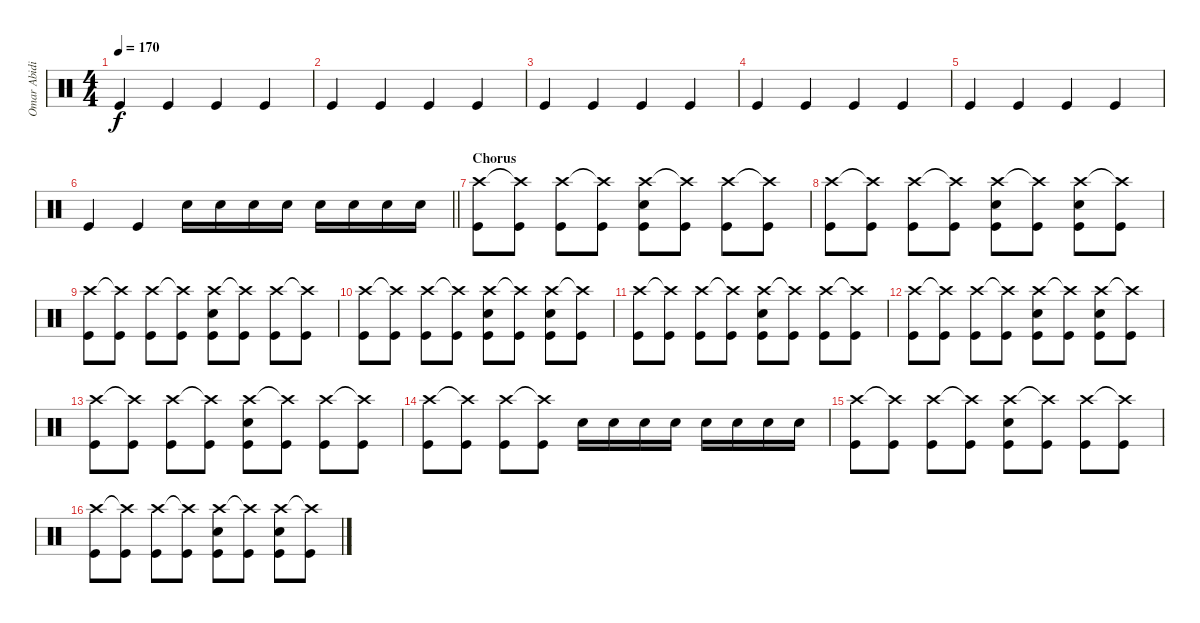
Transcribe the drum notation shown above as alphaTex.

\track ("Omar Abidi" "Omar Abidi") {instrument percussion}
\staff {score}
\articulation defaults
\ts (4 4)
\tempo 170
\clef neutral
\ks c "Kick (hit)".4{dy f} "Kick (hit)".4 "Kick (hit)".4 "Kick (hit)".4
|
"Kick (hit)".4 "Kick (hit)".4 "Kick (hit)".4 "Kick (hit)".4 |
"Kick (hit)".4 "Kick (hit)".4 "Kick (hit)".4 "Kick (hit)".4 |
"Kick (hit)".4 "Kick (hit)".4 "Kick (hit)".4 "Kick (hit)".4 |
"Kick (hit)".4 "Kick (hit)".4 "Kick (hit)".4 "Kick (hit)".4 |
\barLineRight lightlight "Kick (hit)".4 "Kick (hit)".4 "Snare (hit) 2".16 "Snare (hit) 2".16 "Snare (hit) 2".16 "Snare (hit) 2".16 "Snare (hit) 2".16 "Snare (hit) 2".16 "Snare (hit) 2".16 "Snare (hit) 2".16
|
\section ("" "Chorus")
("Crash high (hit)" "Kick (hit)").8 ("Crash high (hit)"{t} "Kick (hit)").8 ("Crash high (hit)" "Kick (hit)").8 ("Crash high (hit)"{t} "Kick (hit)").8 ("Crash high (hit)" "Snare (hit) 2" "Kick (hit)").8 ("Crash high (hit)"{t} "Kick (hit)").8 ("Crash high (hit)" "Kick (hit)").8 ("Crash high (hit)"{t} "Kick (hit)").8 |
("Crash high (hit)" "Kick (hit)").8 ("Crash high (hit)"{t} "Kick (hit)").8 ("Crash high (hit)" "Kick (hit)").8 ("Crash high (hit)"{t} "Kick (hit)").8 ("Crash high (hit)" "Snare (hit) 2" "Kick (hit)").8 ("Crash high (hit)"{t} "Kick (hit)").8 ("Crash high (hit)" "Snare (hit) 2" "Kick (hit)").8 ("Crash high (hit)"{t} "Kick (hit)").8 |
("Crash high (hit)" "Kick (hit)").8 ("Crash high (hit)"{t} "Kick (hit)").8 ("Crash high (hit)" "Kick (hit)").8 ("Crash high (hit)"{t} "Kick (hit)").8 ("Crash high (hit)" "Snare (hit) 2" "Kick (hit)").8 ("Crash high (hit)"{t} "Kick (hit)").8 ("Crash high (hit)" "Kick (hit)").8 ("Crash high (hit)"{t} "Kick (hit)").8 |
("Crash high (hit)" "Kick (hit)").8 ("Crash high (hit)"{t} "Kick (hit)").8 ("Crash high (hit)" "Kick (hit)").8 ("Crash high (hit)"{t} "Kick (hit)").8 ("Crash high (hit)" "Snare (hit) 2" "Kick (hit)").8 ("Crash high (hit)"{t} "Kick (hit)").8 ("Crash high (hit)" "Snare (hit) 2" "Kick (hit)").8 ("Crash high (hit)"{t} "Kick (hit)").8 |
("Crash high (hit)" "Kick (hit)").8 ("Crash high (hit)"{t} "Kick (hit)").8 ("Crash high (hit)" "Kick (hit)").8 ("Crash high (hit)"{t} "Kick (hit)").8 ("Crash high (hit)" "Snare (hit) 2" "Kick (hit)").8 ("Crash high (hit)"{t} "Kick (hit)").8 ("Crash high (hit)" "Kick (hit)").8 ("Crash high (hit)"{t} "Kick (hit)").8 |
("Crash high (hit)" "Kick (hit)").8 ("Crash high (hit)"{t} "Kick (hit)").8 ("Crash high (hit)" "Kick (hit)").8 ("Crash high (hit)"{t} "Kick (hit)").8 ("Crash high (hit)" "Snare (hit) 2" "Kick (hit)").8 ("Crash high (hit)"{t} "Kick (hit)").8 ("Crash high (hit)" "Snare (hit) 2" "Kick (hit)").8 ("Crash high (hit)"{t} "Kick (hit)").8 |
("Crash high (hit)" "Kick (hit)").8 ("Crash high (hit)"{t} "Kick (hit)").8 ("Crash high (hit)" "Kick (hit)").8 ("Crash high (hit)"{t} "Kick (hit)").8 ("Crash high (hit)" "Snare (hit) 2" "Kick (hit)").8 ("Crash high (hit)"{t} "Kick (hit)").8 ("Crash high (hit)" "Kick (hit)").8 ("Crash high (hit)"{t} "Kick (hit)").8 |
("Crash high (hit)" "Kick (hit)").8 ("Crash high (hit)"{t} "Kick (hit)").8 ("Crash high (hit)" "Kick (hit)").8 ("Crash high (hit)"{t} "Kick (hit)").8 "Snare (hit) 2".16 "Snare (hit) 2".16 "Snare (hit) 2".16 "Snare (hit) 2".16 "Snare (hit) 2".16 "Snare (hit) 2".16 "Snare (hit) 2".16 "Snare (hit) 2".16 |
("Crash high (hit)" "Kick (hit)").8 ("Crash high (hit)"{t} "Kick (hit)").8 ("Crash high (hit)" "Kick (hit)").8 ("Crash high (hit)"{t} "Kick (hit)").8 ("Crash high (hit)" "Snare (hit) 2" "Kick (hit)").8 ("Crash high (hit)"{t} "Kick (hit)").8 ("Crash high (hit)" "Kick (hit)").8 ("Crash high (hit)"{t} "Kick (hit)").8 |
("Crash high (hit)" "Kick (hit)").8 ("Crash high (hit)"{t} "Kick (hit)").8 ("Crash high (hit)" "Kick (hit)").8 ("Crash high (hit)"{t} "Kick (hit)").8 ("Crash high (hit)" "Snare (hit) 2" "Kick (hit)").8 ("Crash high (hit)"{t} "Kick (hit)").8 ("Crash high (hit)" "Snare (hit) 2" "Kick (hit)").8 ("Crash high (hit)"{t} "Kick (hit)").8
